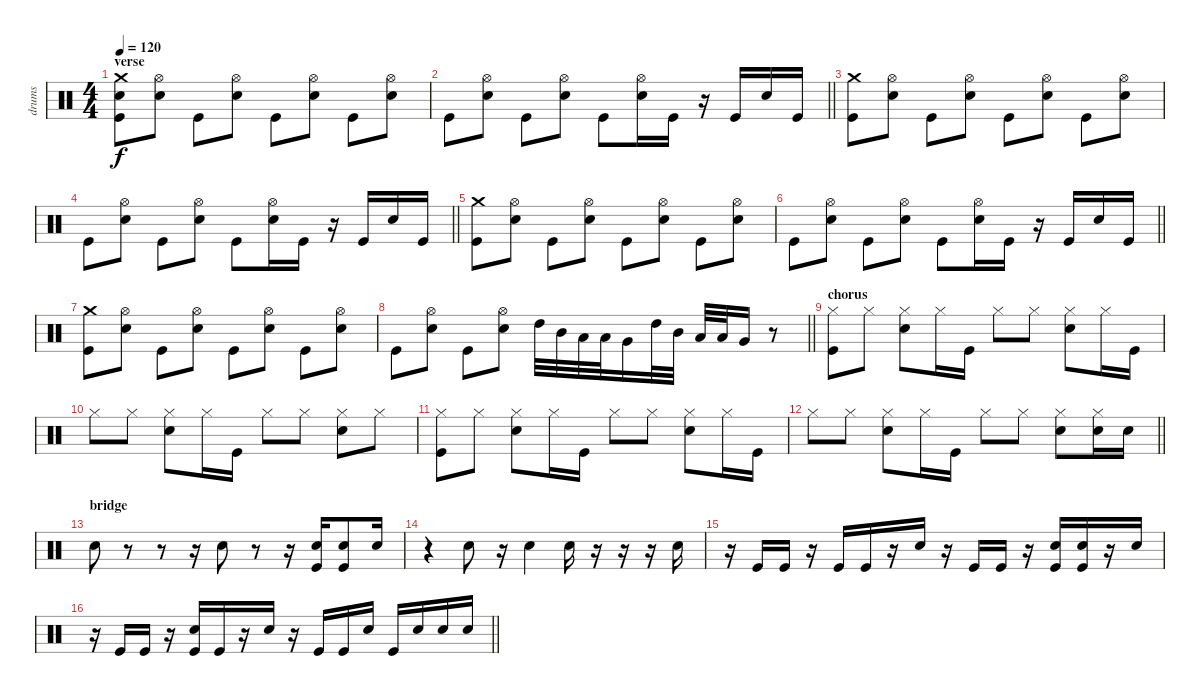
\track ("drums" "drums") {instrument percussion}
\staff {score}
\articulation defaults
\ts (4 4)
\section ("" "verse")
\tempo 120
\clef neutral
\ks c
("Crash medium (hit)" "Snare (hit) 2" "Kick (hit)").8{dy f} ("Hi-Hat (open)" "Snare (hit) 2").8 "Kick (hit)".8 ("Hi-Hat (open)" "Snare (hit) 2").8 "Kick (hit)".8 ("Hi-Hat (open)" "Snare (hit) 2").8 "Kick (hit)".8 ("Hi-Hat (open)" "Snare (hit) 2").8 |
\barLineRight lightlight "Kick (hit)".8
("Hi-Hat (open)" "Snare (hit) 2").8 "Kick (hit)".8 ("Hi-Hat (open)" "Snare (hit) 2").8 "Kick (hit)".8 ("Hi-Hat (open)" "Snare (hit) 2").16 "Kick (hit)".16 r.16 "Kick (hit)".16 "Snare (hit) 2".16 "Kick (hit)".16 |
("Crash medium (hit)" "Kick (hit)").8 ("Hi-Hat (open)" "Snare (hit) 2").8 "Kick (hit)".8 ("Hi-Hat (open)" "Snare (hit) 2").8 "Kick (hit)".8 ("Hi-Hat (open)" "Snare (hit) 2").8 "Kick (hit)".8 ("Hi-Hat (open)" "Snare (hit) 2").8 |
\barLineRight lightlight "Kick (hit)".8
("Hi-Hat (open)" "Snare (hit) 2").8 "Kick (hit)".8 ("Hi-Hat (open)" "Snare (hit) 2").8 "Kick (hit)".8 ("Hi-Hat (open)" "Snare (hit) 2").16 "Kick (hit)".16 r.16 "Kick (hit)".16 "Snare (hit) 2".16 "Kick (hit)".16 |
("Crash medium (hit)" "Kick (hit)").8 ("Hi-Hat (open)" "Snare (hit) 2").8 "Kick (hit)".8 ("Hi-Hat (open)" "Snare (hit) 2").8 "Kick (hit)".8 ("Hi-Hat (open)" "Snare (hit) 2").8 "Kick (hit)".8 ("Hi-Hat (open)" "Snare (hit) 2").8 |
\barLineRight lightlight "Kick (hit)".8
("Hi-Hat (open)" "Snare (hit) 2").8 "Kick (hit)".8 ("Hi-Hat (open)" "Snare (hit) 2").8 "Kick (hit)".8 ("Hi-Hat (open)" "Snare (hit) 2").16 "Kick (hit)".16 r.16 "Kick (hit)".16 "Snare (hit) 2".16 "Kick (hit)".16 |
("Crash medium (hit)" "Kick (hit)").8 ("Hi-Hat (open)" "Snare (hit) 2").8 "Kick (hit)".8 ("Hi-Hat (open)" "Snare (hit) 2").8 "Kick (hit)".8 ("Hi-Hat (open)" "Snare (hit) 2").8 "Kick (hit)".8 ("Hi-Hat (open)" "Snare (hit) 2").8 |
\barLineRight lightlight "Kick (hit)".8
("Hi-Hat (open)" "Snare (hit) 2").8 "Kick (hit)".8 ("Hi-Hat (open)" "Snare (hit) 2").8 "High Tom (hit)".32 "Mid Tom (hit)".32 "Low Tom (hit)".32 "Low Tom (hit)".32 "Very Low Tom (hit)".16 "High Tom (hit)".32 "Mid Tom (hit)".32 "Low Tom (hit)".32 "Low Tom (hit)".32 "Very Low Tom (hit)".16 r.8 |
\section ("" "chorus")
("Hi-Hat (closed)" "Kick (hit)").8 "Hi-Hat (closed)".8 ("Hi-Hat (closed)" "Snare (hit) 2").8 "Hi-Hat (closed)".16 "Kick (hit)".16 "Hi-Hat (closed)".8 "Hi-Hat (closed)".8 ("Hi-Hat (closed)" "Snare (hit) 2").8 "Hi-Hat (closed)".16 "Kick (hit)".16 |
"Hi-Hat (closed)".8 "Hi-Hat (closed)".8 ("Hi-Hat (closed)" "Snare (hit) 2").8 "Hi-Hat (closed)".16 "Kick (hit)".16 "Hi-Hat (closed)".8 "Hi-Hat (closed)".8 ("Hi-Hat (closed)" "Snare (hit) 2").8 "Hi-Hat (closed)".8 |
("Hi-Hat (closed)" "Kick (hit)").8 "Hi-Hat (closed)".8 ("Hi-Hat (closed)" "Snare (hit) 2").8 "Hi-Hat (closed)".16 "Kick (hit)".16 "Hi-Hat (closed)".8 "Hi-Hat (closed)".8 ("Hi-Hat (closed)" "Snare (hit) 2").8 "Hi-Hat (closed)".16 "Kick (hit)".16 |
\barLineRight lightlight "Hi-Hat (closed)".8 "Hi-Hat (closed)".8
("Hi-Hat (closed)" "Snare (hit) 2").8 "Hi-Hat (closed)".16 "Kick (hit)".16 "Hi-Hat (closed)".8 "Hi-Hat (closed)".8 ("Hi-Hat (closed)" "Snare (hit) 2").8 ("Hi-Hat (closed)" "Snare (hit) 2").16 "Snare (hit) 2".16 |
\section ("" "bridge")
"Snare (hit) 2".8 r.8 r.8 r.16 "Snare (hit) 2".8 r.8 r.16 ("Snare (hit) 2" "Kick (hit)").16 ("Snare (hit) 2" "Kick (hit)").8 "Snare (hit) 2".16 |
r.4 "Snare (hit) 2".8 r.16 "Snare (hit) 2".4 "Snare (hit) 2".16 r.16 r.16 r.16 "Snare (hit) 2".16 |
r.16 "Kick (hit)".16 "Kick (hit)".16 r.16 "Kick (hit)".16 "Kick (hit)".16 r.16 "Snare (hit) 2".16 r.16 "Kick (hit)".16 "Kick (hit)".16 r.16 ("Snare (hit) 2" "Kick (hit)").16 ("Snare (hit) 2" "Kick (hit)").16 r.16 "Snare (hit) 2".16 |
\barLineRight lightlight
r.16 "Kick (hit)".16 "Kick (hit)".16 r.16 ("Snare (hit) 2" "Kick (hit)").16 "Kick (hit)".16 r.16 "Snare (hit) 2".16 r.16 "Kick (hit)".16 "Kick (hit)".16 "Snare (hit) 2".16 "Kick (hit)".16 "Snare (hit) 2".16 "Snare (hit) 2".16 "Snare (hit) 2".16
